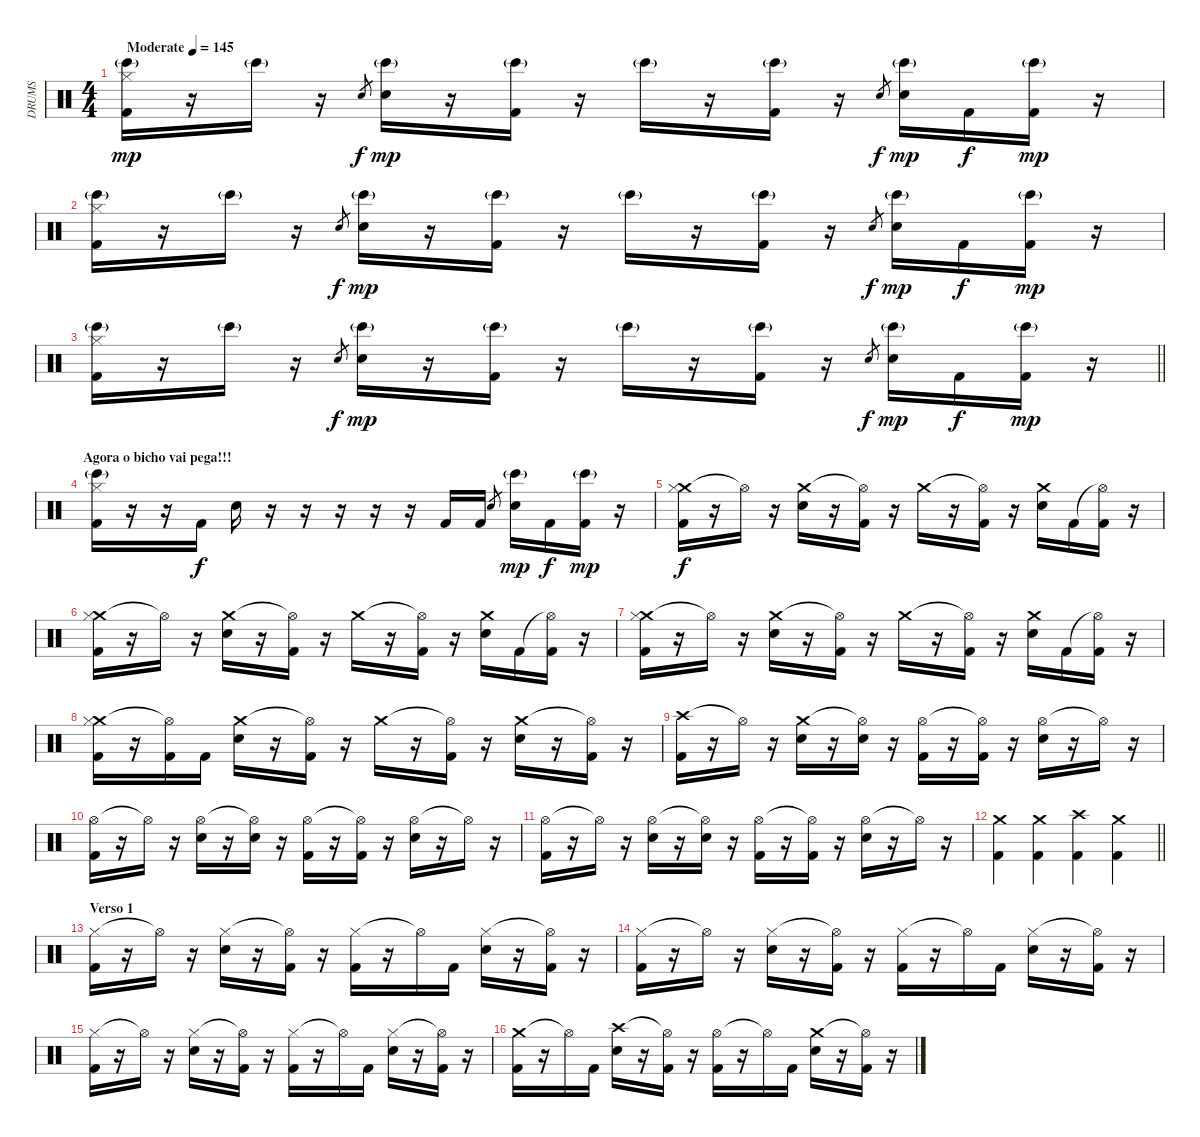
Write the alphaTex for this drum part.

\track ("DRUMS" "DRUMS") {instrument percussion}
\staff {score}
\articulation defaults
\ts (4 4)
\tempo (145 "Moderate")
\clef neutral
\ks c
("Bongo High (hit)"{g} "Hi-Hat (closed)" "Kick (hit) 2").16{dy mp} r.16 "Bongo High (hit)"{g}.16 r.16 "Electric Snare (hit)".8{gr dy f} ("Bongo High (hit)"{g} "Electric Snare (hit)").16{dy mp} r.16 ("Bongo High (hit)"{g} "Kick (hit) 2").16 r.16 "Bongo High (hit)"{g}.16 r.16 ("Bongo High (hit)"{g} "Kick (hit) 2").16 r.16 "Electric Snare (hit)".8{gr dy f} ("Bongo High (hit)"{g} "Electric Snare (hit)").16{dy mp} "Kick (hit) 2".16{dy f} ("Bongo High (hit)"{g} "Kick (hit) 2").16{dy mp} r.16 |
("Bongo High (hit)"{g} "Hi-Hat (closed)" "Kick (hit) 2").16 r.16 "Bongo High (hit)"{g}.16 r.16 "Electric Snare (hit)".8{gr dy f} ("Bongo High (hit)"{g} "Electric Snare (hit)").16{dy mp} r.16 ("Bongo High (hit)"{g} "Kick (hit) 2").16 r.16 "Bongo High (hit)"{g}.16 r.16 ("Bongo High (hit)"{g} "Kick (hit) 2").16 r.16 "Electric Snare (hit)".8{gr dy f} ("Bongo High (hit)"{g} "Electric Snare (hit)").16{dy mp} "Kick (hit) 2".16{dy f} ("Bongo High (hit)"{g} "Kick (hit) 2").16{dy mp} r.16 |
\barLineRight lightlight
("Bongo High (hit)"{g} "Hi-Hat (closed)" "Kick (hit) 2").16 r.16 "Bongo High (hit)"{g}.16 r.16 "Electric Snare (hit)".8{gr dy f} ("Bongo High (hit)"{g} "Electric Snare (hit)").16{dy mp} r.16 ("Bongo High (hit)"{g} "Kick (hit) 2").16 r.16 "Bongo High (hit)"{g}.16 r.16 ("Bongo High (hit)"{g} "Kick (hit) 2").16 r.16 "Electric Snare (hit)".8{gr dy f} ("Bongo High (hit)"{g} "Electric Snare (hit)").16{dy mp} "Kick (hit) 2".16{dy f} ("Bongo High (hit)"{g} "Kick (hit) 2").16{dy mp} r.16 |
\section ("" "Agora o bicho vai pega!!!")
("Bongo High (hit)"{g} "Hi-Hat (closed)" "Kick (hit) 2").16 r.16 r.16 "Kick (hit) 2".16{dy f} "Electric Snare (hit)".16 r.16 r.16 r.16 r.16 r.16 "Kick (hit) 2".16 "Kick (hit) 2".16 "Electric Snare (hit)".8{gr} ("Bongo High (hit)"{g} "Electric Snare (hit)").16{dy mp} "Kick (hit) 2".16{dy f} ("Bongo High (hit)"{g} "Kick (hit) 2").16{dy mp} r.16 |
("Crash medium (hit)" "Hi-Hat (closed)" "Kick (hit) 2").16{dy f} r.16 "Hi-Hat (open)"{t}.16 r.16 ("Crash medium (hit)" "Electric Snare (hit)").16 r.16 ("Hi-Hat (open)"{t} "Kick (hit) 2").16 r.16 "Crash medium (hit)".16 r.16 ("Hi-Hat (open)"{t} "Kick (hit) 2").16 r.16 ("Crash medium (hit)" "Electric Snare (hit)").16 "Kick (hit) 2".16 ("Hi-Hat (open)"{t} "Kick (hit) 2").16 r.16 |
("Crash medium (hit)" "Hi-Hat (closed)" "Kick (hit) 2").16 r.16 "Hi-Hat (open)"{t}.16 r.16 ("Crash medium (hit)" "Electric Snare (hit)").16 r.16 ("Hi-Hat (open)"{t} "Kick (hit) 2").16 r.16 "Crash medium (hit)".16 r.16 ("Hi-Hat (open)"{t} "Kick (hit) 2").16 r.16 ("Crash medium (hit)" "Electric Snare (hit)").16 "Kick (hit) 2".16 ("Hi-Hat (open)"{t} "Kick (hit) 2").16 r.16 |
("Crash medium (hit)" "Hi-Hat (closed)" "Kick (hit) 2").16 r.16 "Hi-Hat (open)"{t}.16 r.16 ("Crash medium (hit)" "Electric Snare (hit)").16 r.16 ("Hi-Hat (open)"{t} "Kick (hit) 2").16 r.16 "Crash medium (hit)".16 r.16 ("Hi-Hat (open)"{t} "Kick (hit) 2").16 r.16 ("Crash medium (hit)" "Electric Snare (hit)").16 "Kick (hit) 2".16 ("Hi-Hat (open)"{t} "Kick (hit) 2").16 r.16 |
("Crash medium (hit)" "Hi-Hat (closed)" "Kick (hit) 2").16 r.16 ("Hi-Hat (open)"{t} "Kick (hit) 2").16 "Kick (hit) 2".16 ("Crash medium (hit)" "Electric Snare (hit)").16 r.16 ("Hi-Hat (open)"{t} "Kick (hit) 2").16 r.16 "Crash medium (hit)".16 r.16 ("Hi-Hat (open)"{t} "Kick (hit) 2").16 r.16 ("Crash medium (hit)" "Electric Snare (hit)").16 r.16 ("Hi-Hat (open)"{t} "Kick (hit) 2").16 r.16 |
("Crash high (hit)" "Kick (hit) 2").16 r.16 "Hi-Hat (open)"{t}.16 r.16 ("Crash medium (hit)" "Electric Snare (hit)").16 r.16 ("Hi-Hat (open)"{t} "Electric Snare (hit)").16 r.16 ("Hi-Hat (open)" "Kick (hit) 2").16 r.16 ("Hi-Hat (open)"{t} "Kick (hit) 2").16 r.16 ("Hi-Hat (open)" "Electric Snare (hit)").16 r.16 "Hi-Hat (open)"{t}.16 r.16 |
("Hi-Hat (open)" "Kick (hit) 2").16 r.16 "Hi-Hat (open)"{t}.16 r.16 ("Hi-Hat (open)" "Electric Snare (hit)").16 r.16 ("Hi-Hat (open)"{t} "Electric Snare (hit)").16 r.16 ("Hi-Hat (open)" "Kick (hit) 2").16 r.16 ("Hi-Hat (open)"{t} "Kick (hit) 2").16 r.16 ("Hi-Hat (open)" "Electric Snare (hit)").16 r.16 "Hi-Hat (open)"{t}.16 r.16 |
("Hi-Hat (open)" "Kick (hit) 2").16 r.16 "Hi-Hat (open)"{t}.16 r.16 ("Hi-Hat (open)" "Electric Snare (hit)").16 r.16 ("Hi-Hat (open)"{t} "Electric Snare (hit)").16 r.16 ("Hi-Hat (open)" "Kick (hit) 2").16 r.16 ("Hi-Hat (open)"{t} "Kick (hit) 2").16 r.16 ("Hi-Hat (open)" "Electric Snare (hit)").16 r.16 "Hi-Hat (open)"{t}.16 r.16 |
\barLineRight lightlight
("Crash medium (hit)" "Kick (hit) 2").4 ("Crash medium (hit)" "Kick (hit) 2").4 ("Crash high (hit)" "Kick (hit) 2").4 ("Crash medium (hit)" "Kick (hit) 2").4 |
\section ("" "Verso 1")
("Hi-Hat (closed)" "Kick (hit) 2").16 r.16 "Hi-Hat (open)"{t}.16 r.16 ("Hi-Hat (closed)" "Electric Snare (hit)").16 r.16 ("Hi-Hat (open)"{t} "Kick (hit) 2").16 r.16 ("Hi-Hat (closed)" "Kick (hit) 2").16 r.16 "Hi-Hat (open)"{t}.16 "Kick (hit) 2".16 ("Hi-Hat (closed)" "Electric Snare (hit)").16 r.16 ("Hi-Hat (open)"{t} "Kick (hit) 2").16 r.16 |
("Hi-Hat (closed)" "Kick (hit) 2").16 r.16 "Hi-Hat (open)"{t}.16 r.16 ("Hi-Hat (closed)" "Electric Snare (hit)").16 r.16 ("Hi-Hat (open)"{t} "Kick (hit) 2").16 r.16 ("Hi-Hat (closed)" "Kick (hit) 2").16 r.16 "Hi-Hat (open)"{t}.16 "Kick (hit) 2".16 ("Hi-Hat (closed)" "Electric Snare (hit)").16 r.16 ("Hi-Hat (open)"{t} "Kick (hit) 2").16 r.16 |
("Hi-Hat (closed)" "Kick (hit) 2").16 r.16 "Hi-Hat (open)"{t}.16 r.16 ("Hi-Hat (closed)" "Electric Snare (hit)").16 r.16 ("Hi-Hat (open)"{t} "Kick (hit) 2").16 r.16 ("Hi-Hat (closed)" "Kick (hit) 2").16 r.16 "Hi-Hat (open)"{t}.16 "Kick (hit) 2".16 ("Hi-Hat (closed)" "Electric Snare (hit)").16 r.16 ("Hi-Hat (open)"{t} "Kick (hit) 2").16 r.16 |
("Crash medium (hit)" "Kick (hit) 2").16 r.16 "Hi-Hat (open)"{t}.16 "Kick (hit) 2".16 ("Crash high (hit)" "Electric Snare (hit)").16 r.16 ("Hi-Hat (open)"{t} "Kick (hit) 2").16 r.16 ("Hi-Hat (open)" "Kick (hit) 2").16 r.16 "Hi-Hat (open)"{t}.16 "Kick (hit) 2".16 ("Crash medium (hit)" "Electric Snare (hit)").16 r.16 ("Hi-Hat (open)"{t} "Kick (hit) 2").16 r.16
